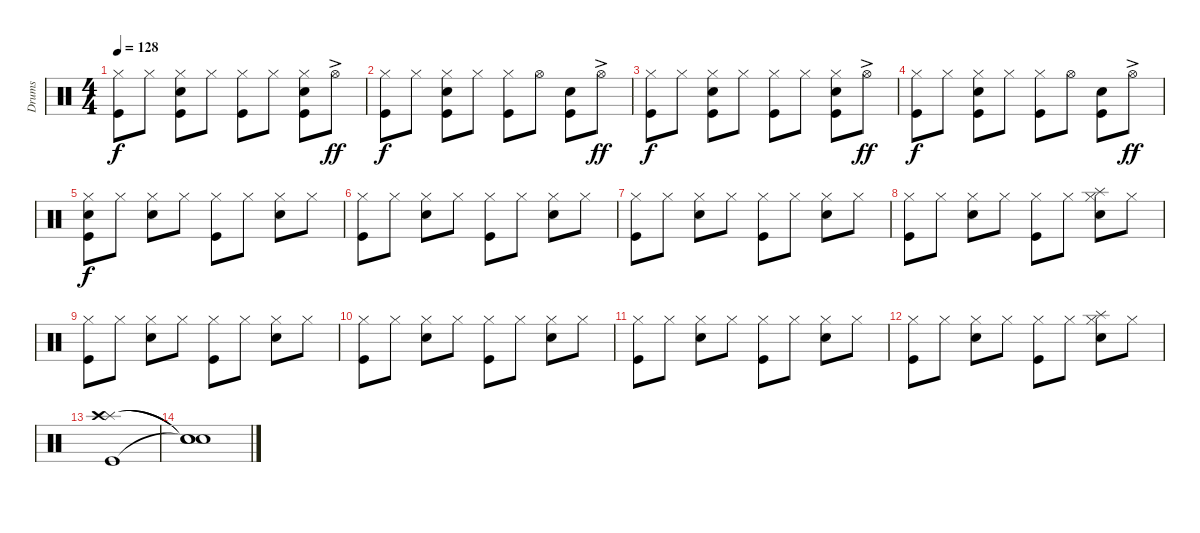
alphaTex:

\track ("Drums" "Drums") {instrument percussion}
\staff {score}
\articulation defaults
\ts (4 4)
\tempo 128
\clef neutral
\ks c
("Hi-Hat (closed)" "Kick (hit)").8{dy f} "Hi-Hat (closed)".8 ("Hi-Hat (closed)" "Electric Snare (hit)" "Kick (hit)").8 "Hi-Hat (closed)".8 ("Hi-Hat (closed)" "Kick (hit)").8 "Hi-Hat (closed)".8 ("Hi-Hat (closed)" "Electric Snare (hit)" "Kick (hit)").8 "Hi-Hat (open)"{ac}.8{dy ff} |
("Hi-Hat (closed)" "Kick (hit)").8{dy f} "Hi-Hat (closed)".8 ("Hi-Hat (closed)" "Electric Snare (hit)" "Kick (hit)").8 "Hi-Hat (closed)".8 ("Hi-Hat (closed)" "Kick (hit)").8 "Hi-Hat (open)".8 ("Electric Snare (hit)" "Kick (hit)").8 "Hi-Hat (open)"{ac}.8{dy ff} |
("Hi-Hat (closed)" "Kick (hit)").8{dy f} "Hi-Hat (closed)".8 ("Hi-Hat (closed)" "Electric Snare (hit)" "Kick (hit)").8 "Hi-Hat (closed)".8 ("Hi-Hat (closed)" "Kick (hit)").8 "Hi-Hat (closed)".8 ("Hi-Hat (closed)" "Electric Snare (hit)" "Kick (hit)").8 "Hi-Hat (open)"{ac}.8{dy ff} |
("Hi-Hat (closed)" "Kick (hit)").8{dy f} "Hi-Hat (closed)".8 ("Hi-Hat (closed)" "Electric Snare (hit)" "Kick (hit)").8 "Hi-Hat (closed)".8 ("Hi-Hat (closed)" "Kick (hit)").8 "Hi-Hat (open)".8 ("Electric Snare (hit)" "Kick (hit)").8 "Hi-Hat (open)"{ac}.8{dy ff} |
("Hi-Hat (closed)" "Electric Snare (hit)" "Kick (hit)").8{dy f} "Hi-Hat (closed)".8 ("Hi-Hat (closed)" "Electric Snare (hit)").8 "Hi-Hat (closed)".8 ("Hi-Hat (closed)" "Kick (hit)").8 "Hi-Hat (closed)".8 ("Hi-Hat (closed)" "Electric Snare (hit)").8 "Hi-Hat (closed)".8 |
("Hi-Hat (closed)" "Kick (hit)").8 "Hi-Hat (closed)".8 ("Hi-Hat (closed)" "Electric Snare (hit)").8 "Hi-Hat (closed)".8 ("Hi-Hat (closed)" "Kick (hit)").8 "Hi-Hat (closed)".8 ("Hi-Hat (closed)" "Electric Snare (hit)").8 "Hi-Hat (closed)".8 |
("Hi-Hat (closed)" "Kick (hit)").8 "Hi-Hat (closed)".8 ("Hi-Hat (closed)" "Electric Snare (hit)").8 "Hi-Hat (closed)".8 ("Hi-Hat (closed)" "Kick (hit)").8 "Hi-Hat (closed)".8 ("Hi-Hat (closed)" "Electric Snare (hit)").8 "Hi-Hat (closed)".8 |
("Hi-Hat (closed)" "Kick (hit)").8 "Hi-Hat (closed)".8 ("Hi-Hat (closed)" "Electric Snare (hit)").8 "Hi-Hat (closed)".8 ("Hi-Hat (closed)" "Kick (hit)").8 "Hi-Hat (closed)".8 ("Splash (hit)" "Hi-Hat (closed)" "Electric Snare (hit)").8 "Hi-Hat (closed)".8 |
("Hi-Hat (closed)" "Kick (hit)").8 "Hi-Hat (closed)".8 ("Hi-Hat (closed)" "Electric Snare (hit)").8 "Hi-Hat (closed)".8 ("Hi-Hat (closed)" "Kick (hit)").8 "Hi-Hat (closed)".8 ("Hi-Hat (closed)" "Electric Snare (hit)").8 "Hi-Hat (closed)".8 |
("Hi-Hat (closed)" "Kick (hit)").8 "Hi-Hat (closed)".8 ("Hi-Hat (closed)" "Electric Snare (hit)").8 "Hi-Hat (closed)".8 ("Hi-Hat (closed)" "Kick (hit)").8 "Hi-Hat (closed)".8 ("Hi-Hat (closed)" "Electric Snare (hit)").8 "Hi-Hat (closed)".8 |
("Hi-Hat (closed)" "Kick (hit)").8 "Hi-Hat (closed)".8 ("Hi-Hat (closed)" "Electric Snare (hit)").8 "Hi-Hat (closed)".8 ("Hi-Hat (closed)" "Kick (hit)").8 "Hi-Hat (closed)".8 ("Hi-Hat (closed)" "Electric Snare (hit)").8 "Hi-Hat (closed)".8 |
("Hi-Hat (closed)" "Kick (hit)").8 "Hi-Hat (closed)".8 ("Hi-Hat (closed)" "Electric Snare (hit)").8 "Hi-Hat (closed)".8 ("Hi-Hat (closed)" "Kick (hit)").8 "Hi-Hat (closed)".8 ("Splash (hit)" "Hi-Hat (closed)" "Electric Snare (hit)").8 "Hi-Hat (closed)".8 |
("Splash (hit)" "Crash high (hit)" "Kick (hit)").1 |
("Snare (hit)"{t} "Snare (hit)"{t} "Snare (hit)"{t}).1
